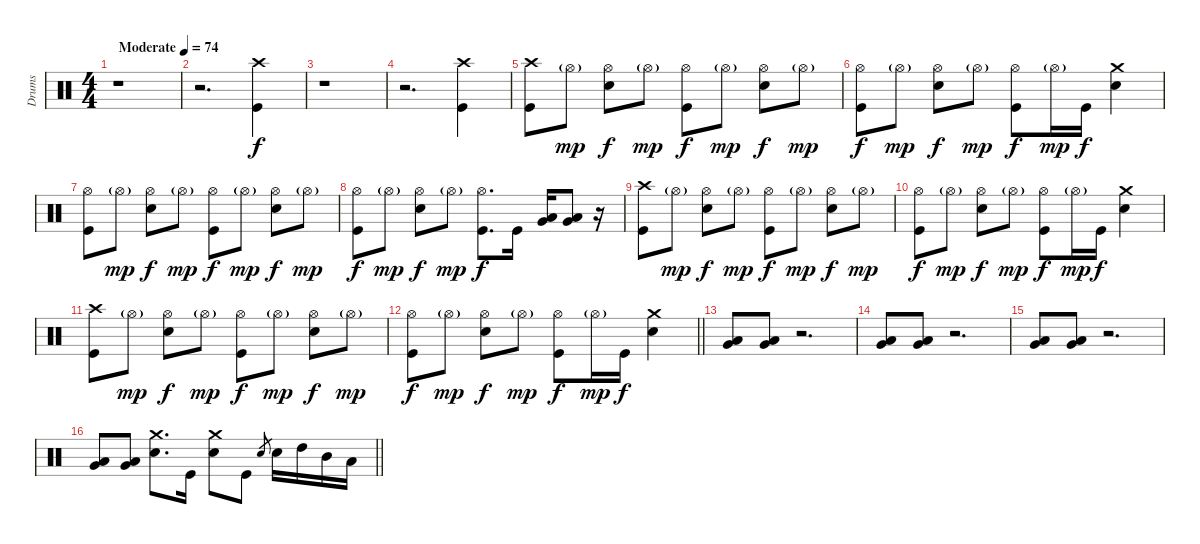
\track ("Drums" "Drums") {instrument percussion}
\staff {score}
\articulation defaults
\ts (4 4)
\tempo (74 "Moderate")
\clef neutral
\ks c
r.1{dy f} |
r.2{d} ("Kick (hit)" "Crash high (hit)").4 |
r.1 |
r.2{d} ("Kick (hit)" "Crash high (hit)").4 |
("Kick (hit)" "Crash high (hit)").8 "Hi-Hat (open)"{g}.8{dy mp} ("Snare (hit) 2" "Hi-Hat (open)").8{dy f} "Hi-Hat (open)"{g}.8{dy mp} ("Kick (hit)" "Hi-Hat (open)").8{dy f} "Hi-Hat (open)"{g}.8{dy mp} ("Snare (hit) 2" "Hi-Hat (open)").8{dy f} "Hi-Hat (open)"{g}.8{dy mp} |
("Kick (hit)" "Hi-Hat (open)").8{dy f} "Hi-Hat (open)"{g}.8{dy mp} ("Snare (hit) 2" "Hi-Hat (open)").8{dy f} "Hi-Hat (open)"{g}.8{dy mp} ("Kick (hit)" "Hi-Hat (open)").8{dy f} "Hi-Hat (open)"{g}.16{dy mp} "Kick (hit)".16{dy f} ("Snare (hit) 2" "Crash medium (hit)").4 |
("Kick (hit)" "Hi-Hat (open)").8 "Hi-Hat (open)"{g}.8{dy mp} ("Snare (hit) 2" "Hi-Hat (open)").8{dy f} "Hi-Hat (open)"{g}.8{dy mp} ("Kick (hit)" "Hi-Hat (open)").8{dy f} "Hi-Hat (open)"{g}.8{dy mp} ("Snare (hit) 2" "Hi-Hat (open)").8{dy f} "Hi-Hat (open)"{g}.8{dy mp} |
("Kick (hit)" "Hi-Hat (open)").8{dy f} "Hi-Hat (open)"{g}.8{dy mp} ("Snare (hit) 2" "Hi-Hat (open)").8{dy f} "Hi-Hat (open)"{g}.8{dy mp} ("Kick (hit)" "Hi-Hat (open)").8{d dy f} "Kick (hit)".16 ("Very Low Tom (hit)" "Low Floor Tom (hit)").16 ("Very Low Tom (hit)" "Low Floor Tom (hit)").8 r.16 |
("Kick (hit)" "Crash high (hit)").8 "Hi-Hat (open)"{g}.8{dy mp} ("Snare (hit) 2" "Hi-Hat (open)").8{dy f} "Hi-Hat (open)"{g}.8{dy mp} ("Kick (hit)" "Hi-Hat (open)").8{dy f} "Hi-Hat (open)"{g}.8{dy mp} ("Snare (hit) 2" "Hi-Hat (open)").8{dy f} "Hi-Hat (open)"{g}.8{dy mp} |
("Kick (hit)" "Hi-Hat (open)").8{dy f} "Hi-Hat (open)"{g}.8{dy mp} ("Snare (hit) 2" "Hi-Hat (open)").8{dy f} "Hi-Hat (open)"{g}.8{dy mp} ("Kick (hit)" "Hi-Hat (open)").8{dy f} "Hi-Hat (open)"{g}.16{dy mp} "Kick (hit)".16{dy f} ("Snare (hit) 2" "Crash medium (hit)").4 |
("Kick (hit)" "Crash high (hit)").8 "Hi-Hat (open)"{g}.8{dy mp} ("Snare (hit) 2" "Hi-Hat (open)").8{dy f} "Hi-Hat (open)"{g}.8{dy mp} ("Kick (hit)" "Hi-Hat (open)").8{dy f} "Hi-Hat (open)"{g}.8{dy mp} ("Snare (hit) 2" "Hi-Hat (open)").8{dy f} "Hi-Hat (open)"{g}.8{dy mp} |
\barLineRight lightlight
("Kick (hit)" "Hi-Hat (open)").8{dy f} "Hi-Hat (open)"{g}.8{dy mp} ("Snare (hit) 2" "Hi-Hat (open)").8{dy f} "Hi-Hat (open)"{g}.8{dy mp} ("Kick (hit)" "Hi-Hat (open)").8{dy f} "Hi-Hat (open)"{g}.16{dy mp} "Kick (hit)".16{dy f} ("Snare (hit) 2" "Crash medium (hit)").4 |
("Very Low Tom (hit)" "Low Floor Tom (hit)").8 ("Very Low Tom (hit)" "Low Floor Tom (hit)").8 r.2{d} |
("Very Low Tom (hit)" "Low Floor Tom (hit)").8 ("Very Low Tom (hit)" "Low Floor Tom (hit)").8 r.2{d} |
("Very Low Tom (hit)" "Low Floor Tom (hit)").8 ("Very Low Tom (hit)" "Low Floor Tom (hit)").8 r.2{d} |
\barLineRight lightlight
("Very Low Tom (hit)" "Low Floor Tom (hit)").8 ("Very Low Tom (hit)" "Low Floor Tom (hit)").8 ("Snare (hit) 2" "Crash medium (hit)").8{d} "Kick (hit)".16 ("Snare (hit) 2" "Crash medium (hit)").8 "Kick (hit)".8 "Snare (hit) 2".8{gr} "Snare (hit) 2".16 "High Tom (hit)".16 "Mid Tom (hit)".16 "Low Tom (hit)".16
